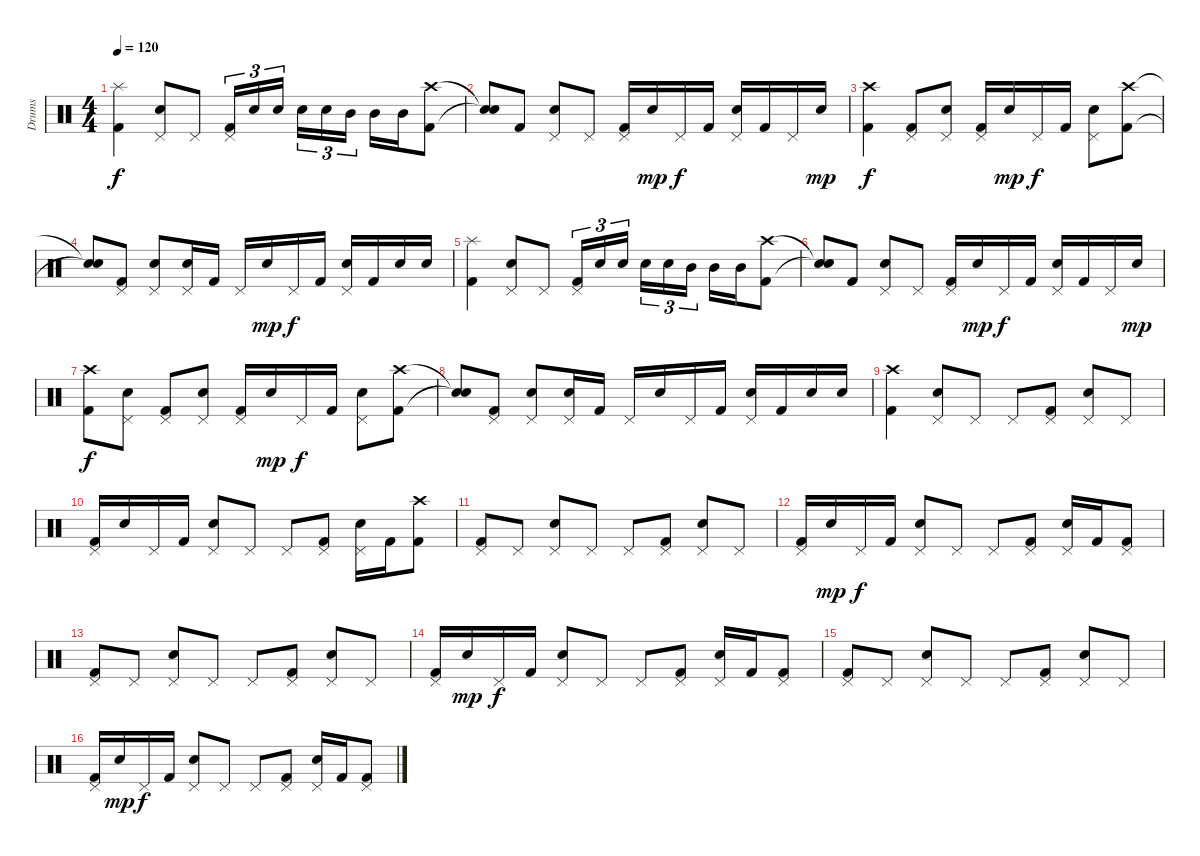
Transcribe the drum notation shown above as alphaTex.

\track ("Drums" "Drums") {instrument percussion}
\staff {score}
\articulation defaults
\ts (4 4)
\tempo 120
\clef neutral
\ks c
("Splash (hit)" "Kick (hit) 2").4{dy f} ("Pedal Hi-Hat (hit)" "Electric Snare (hit)").8 "Pedal Hi-Hat (hit)".8 ("Pedal Hi-Hat (hit)" "Kick (hit) 2").16{tu (3 2)} "Electric Snare (hit)".16{tu (3 2)} "Electric Snare (hit)".16{tu (3 2)} "Electric Snare (hit)".16{tu (3 2)} "Electric Snare (hit)".16{tu (3 2)} "Mid Tom (hit)".16{tu (3 2)} "Mid Tom (hit)".16 "Mid Tom (hit)".16 ("Crash high (hit)" "Kick (hit) 2").8 |
("Snare (hit)"{t} "Snare (hit)"{t}).8 "Kick (hit) 2".8 ("Pedal Hi-Hat (hit)" "Electric Snare (hit)").8 "Pedal Hi-Hat (hit)".8 ("Pedal Hi-Hat (hit)" "Kick (hit) 2").16 "Electric Snare (hit)".16{dy mp} "Pedal Hi-Hat (hit)".16{dy f} "Kick (hit) 2".16 ("Pedal Hi-Hat (hit)" "Electric Snare (hit)").16 "Kick (hit) 2".16 "Pedal Hi-Hat (hit)".16 "Electric Snare (hit)".16{dy mp} |
("Crash high (hit)" "Kick (hit) 2").4{dy f} ("Pedal Hi-Hat (hit)" "Kick (hit) 2").8 ("Pedal Hi-Hat (hit)" "Electric Snare (hit)").8 ("Pedal Hi-Hat (hit)" "Kick (hit) 2").16 "Electric Snare (hit)".16{dy mp} "Pedal Hi-Hat (hit)".16{dy f} "Kick (hit) 2".16 ("Pedal Hi-Hat (hit)" "Electric Snare (hit)").8 ("Crash high (hit)" "Kick (hit) 2").8 |
("Snare (hit)"{t} "Snare (hit)"{t}).8 ("Pedal Hi-Hat (hit)" "Kick (hit) 2").8 ("Pedal Hi-Hat (hit)" "Electric Snare (hit)").8 ("Pedal Hi-Hat (hit)" "Electric Snare (hit)").16 "Kick (hit) 2".16 "Pedal Hi-Hat (hit)".16 "Electric Snare (hit)".16{dy mp} "Pedal Hi-Hat (hit)".16{dy f} "Kick (hit) 2".16 ("Pedal Hi-Hat (hit)" "Electric Snare (hit)").16 "Kick (hit) 2".16 "Electric Snare (hit)".16 "Electric Snare (hit)".16 |
("Splash (hit)" "Kick (hit) 2").4 ("Pedal Hi-Hat (hit)" "Electric Snare (hit)").8 "Pedal Hi-Hat (hit)".8 ("Pedal Hi-Hat (hit)" "Kick (hit) 2").16{tu (3 2)} "Electric Snare (hit)".16{tu (3 2)} "Electric Snare (hit)".16{tu (3 2)} "Electric Snare (hit)".16{tu (3 2)} "Electric Snare (hit)".16{tu (3 2)} "Mid Tom (hit)".16{tu (3 2)} "Mid Tom (hit)".16 "Mid Tom (hit)".16 ("Crash high (hit)" "Kick (hit) 2").8 |
("Snare (hit)"{t} "Snare (hit)"{t}).8 "Kick (hit) 2".8 ("Pedal Hi-Hat (hit)" "Electric Snare (hit)").8 "Pedal Hi-Hat (hit)".8 ("Pedal Hi-Hat (hit)" "Kick (hit) 2").16 "Electric Snare (hit)".16{dy mp} "Pedal Hi-Hat (hit)".16{dy f} "Kick (hit) 2".16 ("Pedal Hi-Hat (hit)" "Electric Snare (hit)").16 "Kick (hit) 2".16 "Pedal Hi-Hat (hit)".16 "Electric Snare (hit)".16{dy mp} |
("Crash high (hit)" "Kick (hit) 2").8{dy f} ("Pedal Hi-Hat (hit)" "Electric Snare (hit)").8 ("Pedal Hi-Hat (hit)" "Kick (hit) 2").8 ("Pedal Hi-Hat (hit)" "Electric Snare (hit)").8 ("Pedal Hi-Hat (hit)" "Kick (hit) 2").16 "Electric Snare (hit)".16{dy mp} "Pedal Hi-Hat (hit)".16{dy f} "Kick (hit) 2".16 ("Pedal Hi-Hat (hit)" "Electric Snare (hit)").8 ("Crash high (hit)" "Kick (hit) 2").8 |
("Snare (hit)"{t} "Snare (hit)"{t}).8 ("Pedal Hi-Hat (hit)" "Kick (hit) 2").8 ("Pedal Hi-Hat (hit)" "Electric Snare (hit)").8 ("Pedal Hi-Hat (hit)" "Electric Snare (hit)").16 "Kick (hit) 2".16 "Pedal Hi-Hat (hit)".16 "Electric Snare (hit)".16 "Pedal Hi-Hat (hit)".16 "Kick (hit) 2".16 ("Pedal Hi-Hat (hit)" "Electric Snare (hit)").16 "Kick (hit) 2".16 "Electric Snare (hit)".16 "Electric Snare (hit)".16 |
("Crash high (hit)" "Kick (hit) 2").4 ("Pedal Hi-Hat (hit)" "Electric Snare (hit)").8 "Pedal Hi-Hat (hit)".8 "Pedal Hi-Hat (hit)".8 ("Pedal Hi-Hat (hit)" "Kick (hit) 2").8 ("Pedal Hi-Hat (hit)" "Electric Snare (hit)").8 "Pedal Hi-Hat (hit)".8 |
("Pedal Hi-Hat (hit)" "Kick (hit) 2").16 "Electric Snare (hit)".16 "Pedal Hi-Hat (hit)".16 "Kick (hit) 2".16 ("Pedal Hi-Hat (hit)" "Electric Snare (hit)").8 "Pedal Hi-Hat (hit)".8 "Pedal Hi-Hat (hit)".8 ("Pedal Hi-Hat (hit)" "Kick (hit) 2").8 ("Pedal Hi-Hat (hit)" "Electric Snare (hit)").16 "Kick (hit) 2".16 ("Crash high (hit)" "Kick (hit) 2").8 |
("Pedal Hi-Hat (hit)" "Kick (hit) 2").8 "Pedal Hi-Hat (hit)".8 ("Pedal Hi-Hat (hit)" "Electric Snare (hit)").8 "Pedal Hi-Hat (hit)".8 "Pedal Hi-Hat (hit)".8 ("Pedal Hi-Hat (hit)" "Kick (hit) 2").8 ("Pedal Hi-Hat (hit)" "Electric Snare (hit)").8 "Pedal Hi-Hat (hit)".8 |
("Pedal Hi-Hat (hit)" "Kick (hit) 2").16 "Electric Snare (hit)".16{dy mp} "Pedal Hi-Hat (hit)".16{dy f} "Kick (hit) 2".16 ("Pedal Hi-Hat (hit)" "Electric Snare (hit)").8 "Pedal Hi-Hat (hit)".8 "Pedal Hi-Hat (hit)".8 ("Pedal Hi-Hat (hit)" "Kick (hit) 2").8 ("Pedal Hi-Hat (hit)" "Electric Snare (hit)").16 "Kick (hit) 2".16 ("Pedal Hi-Hat (hit)" "Kick (hit) 2").8 |
("Pedal Hi-Hat (hit)" "Kick (hit) 2").8 "Pedal Hi-Hat (hit)".8 ("Pedal Hi-Hat (hit)" "Electric Snare (hit)").8 "Pedal Hi-Hat (hit)".8 "Pedal Hi-Hat (hit)".8 ("Pedal Hi-Hat (hit)" "Kick (hit) 2").8 ("Pedal Hi-Hat (hit)" "Electric Snare (hit)").8 "Pedal Hi-Hat (hit)".8 |
("Pedal Hi-Hat (hit)" "Kick (hit) 2").16 "Electric Snare (hit)".16{dy mp} "Pedal Hi-Hat (hit)".16{dy f} "Kick (hit) 2".16 ("Pedal Hi-Hat (hit)" "Electric Snare (hit)").8 "Pedal Hi-Hat (hit)".8 "Pedal Hi-Hat (hit)".8 ("Pedal Hi-Hat (hit)" "Kick (hit) 2").8 ("Pedal Hi-Hat (hit)" "Electric Snare (hit)").16 "Kick (hit) 2".16 ("Pedal Hi-Hat (hit)" "Kick (hit) 2").8 |
("Pedal Hi-Hat (hit)" "Kick (hit) 2").8 "Pedal Hi-Hat (hit)".8 ("Pedal Hi-Hat (hit)" "Electric Snare (hit)").8 "Pedal Hi-Hat (hit)".8 "Pedal Hi-Hat (hit)".8 ("Pedal Hi-Hat (hit)" "Kick (hit) 2").8 ("Pedal Hi-Hat (hit)" "Electric Snare (hit)").8 "Pedal Hi-Hat (hit)".8 |
("Pedal Hi-Hat (hit)" "Kick (hit) 2").16 "Electric Snare (hit)".16{dy mp} "Pedal Hi-Hat (hit)".16{dy f} "Kick (hit) 2".16 ("Pedal Hi-Hat (hit)" "Electric Snare (hit)").8 "Pedal Hi-Hat (hit)".8 "Pedal Hi-Hat (hit)".8 ("Pedal Hi-Hat (hit)" "Kick (hit) 2").8 ("Pedal Hi-Hat (hit)" "Electric Snare (hit)").16 "Kick (hit) 2".16 ("Pedal Hi-Hat (hit)" "Kick (hit) 2").8
